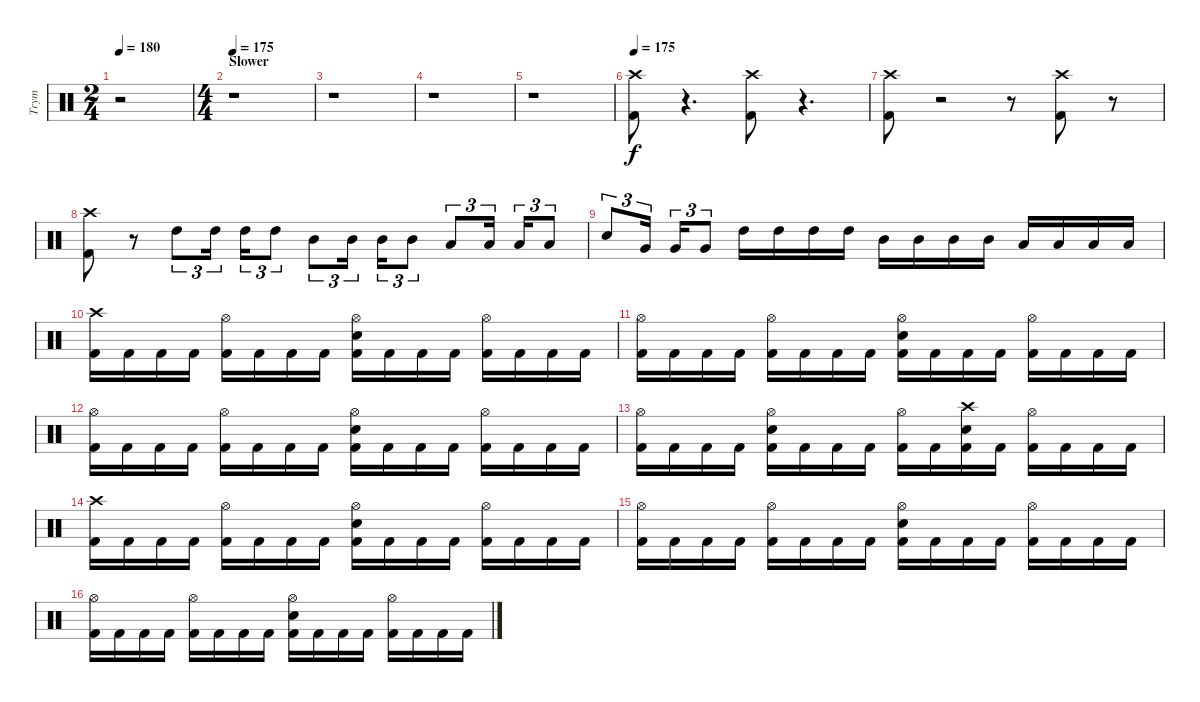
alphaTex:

\track ("Trym" "Trym") {instrument percussion}
\staff {score}
\articulation defaults
\ts (2 4)
\tempo 180
\clef neutral
\ks c
r.2{dy f} |
\ts (4 4)
\section ("" "Slower")
\tempo 175
r.1 |
r.1 |
r.1 |
r.1 |
\tempo 175
("Crash high (hit)" "Kick (hit) 2").8 r.4{d} ("Crash high (hit)" "Kick (hit) 2").8 r.4{d} |
("Crash high (hit)" "Kick (hit) 2").8 r.2 r.8 ("Crash high (hit)" "Kick (hit) 2").8 r.8 |
("Crash high (hit)" "Kick (hit) 2").8 r.8 "High Tom (hit)".8{tu (3 2)} "High Tom (hit)".16{tu (3 2)} "High Tom (hit)".16{tu (3 2)} "High Tom (hit)".8{tu (3 2)} "Mid Tom (hit)".8{tu (3 2)} "Mid Tom (hit)".16{tu (3 2)} "Mid Tom (hit)".16{tu (3 2)} "Mid Tom (hit)".8{tu (3 2)} "Low Tom (hit)".8{tu (3 2)} "Low Tom (hit)".16{tu (3 2)} "Low Tom (hit)".16{tu (3 2)} "Low Tom (hit)".8{tu (3 2)} |
"Electric Snare (hit)".8{tu (3 2)} "Very Low Tom (hit)".16{tu (3 2)} "Very Low Tom (hit)".16{tu (3 2)} "Very Low Tom (hit)".8{tu (3 2)} "High Tom (hit)".16 "High Tom (hit)".16 "High Tom (hit)".16 "High Tom (hit)".16 "Mid Tom (hit)".16 "Mid Tom (hit)".16 "Mid Tom (hit)".16 "Mid Tom (hit)".16 "Low Tom (hit)".16 "Low Tom (hit)".16 "Low Tom (hit)".16 "Low Tom (hit)".16 |
("Crash high (hit)" "Kick (hit) 2").16 "Kick (hit) 2".16 "Kick (hit) 2".16 "Kick (hit) 2".16 ("Hi-Hat (open)" "Kick (hit) 2").16 "Kick (hit) 2".16 "Kick (hit) 2".16 "Kick (hit) 2".16 ("Hi-Hat (open)" "Electric Snare (hit)" "Kick (hit) 2").16 "Kick (hit) 2".16 "Kick (hit) 2".16 "Kick (hit) 2".16 ("Hi-Hat (open)" "Kick (hit) 2").16 "Kick (hit) 2".16 "Kick (hit) 2".16 "Kick (hit) 2".16 |
("Hi-Hat (open)" "Kick (hit) 2").16 "Kick (hit) 2".16 "Kick (hit) 2".16 "Kick (hit) 2".16 ("Hi-Hat (open)" "Kick (hit) 2").16 "Kick (hit) 2".16 "Kick (hit) 2".16 "Kick (hit) 2".16 ("Hi-Hat (open)" "Electric Snare (hit)" "Kick (hit) 2").16 "Kick (hit) 2".16 "Kick (hit) 2".16 "Kick (hit) 2".16 ("Hi-Hat (open)" "Kick (hit) 2").16 "Kick (hit) 2".16 "Kick (hit) 2".16 "Kick (hit) 2".16 |
("Hi-Hat (open)" "Kick (hit) 2").16 "Kick (hit) 2".16 "Kick (hit) 2".16 "Kick (hit) 2".16 ("Hi-Hat (open)" "Kick (hit) 2").16 "Kick (hit) 2".16 "Kick (hit) 2".16 "Kick (hit) 2".16 ("Hi-Hat (open)" "Electric Snare (hit)" "Kick (hit) 2").16 "Kick (hit) 2".16 "Kick (hit) 2".16 "Kick (hit) 2".16 ("Hi-Hat (open)" "Kick (hit) 2").16 "Kick (hit) 2".16 "Kick (hit) 2".16 "Kick (hit) 2".16 |
("Hi-Hat (open)" "Kick (hit) 2").16 "Kick (hit) 2".16 "Kick (hit) 2".16 "Kick (hit) 2".16 ("Hi-Hat (open)" "Electric Snare (hit)" "Kick (hit) 2").16 "Kick (hit) 2".16 "Kick (hit) 2".16 "Kick (hit) 2".16 ("Hi-Hat (open)" "Kick (hit) 2").16 "Kick (hit) 2".16 ("Crash high (hit)" "Electric Snare (hit)" "Kick (hit) 2").16 "Kick (hit) 2".16 ("Hi-Hat (open)" "Kick (hit) 2").16 "Kick (hit) 2".16 "Kick (hit) 2".16 "Kick (hit) 2".16 |
("Crash high (hit)" "Kick (hit) 2").16 "Kick (hit) 2".16 "Kick (hit) 2".16 "Kick (hit) 2".16 ("Hi-Hat (open)" "Kick (hit) 2").16 "Kick (hit) 2".16 "Kick (hit) 2".16 "Kick (hit) 2".16 ("Hi-Hat (open)" "Electric Snare (hit)" "Kick (hit) 2").16 "Kick (hit) 2".16 "Kick (hit) 2".16 "Kick (hit) 2".16 ("Hi-Hat (open)" "Kick (hit) 2").16 "Kick (hit) 2".16 "Kick (hit) 2".16 "Kick (hit) 2".16 |
("Hi-Hat (open)" "Kick (hit) 2").16 "Kick (hit) 2".16 "Kick (hit) 2".16 "Kick (hit) 2".16 ("Hi-Hat (open)" "Kick (hit) 2").16 "Kick (hit) 2".16 "Kick (hit) 2".16 "Kick (hit) 2".16 ("Hi-Hat (open)" "Electric Snare (hit)" "Kick (hit) 2").16 "Kick (hit) 2".16 "Kick (hit) 2".16 "Kick (hit) 2".16 ("Hi-Hat (open)" "Kick (hit) 2").16 "Kick (hit) 2".16 "Kick (hit) 2".16 "Kick (hit) 2".16 |
("Hi-Hat (open)" "Kick (hit) 2").16 "Kick (hit) 2".16 "Kick (hit) 2".16 "Kick (hit) 2".16 ("Hi-Hat (open)" "Kick (hit) 2").16 "Kick (hit) 2".16 "Kick (hit) 2".16 "Kick (hit) 2".16 ("Hi-Hat (open)" "Electric Snare (hit)" "Kick (hit) 2").16 "Kick (hit) 2".16 "Kick (hit) 2".16 "Kick (hit) 2".16 ("Hi-Hat (open)" "Kick (hit) 2").16 "Kick (hit) 2".16 "Kick (hit) 2".16 "Kick (hit) 2".16
